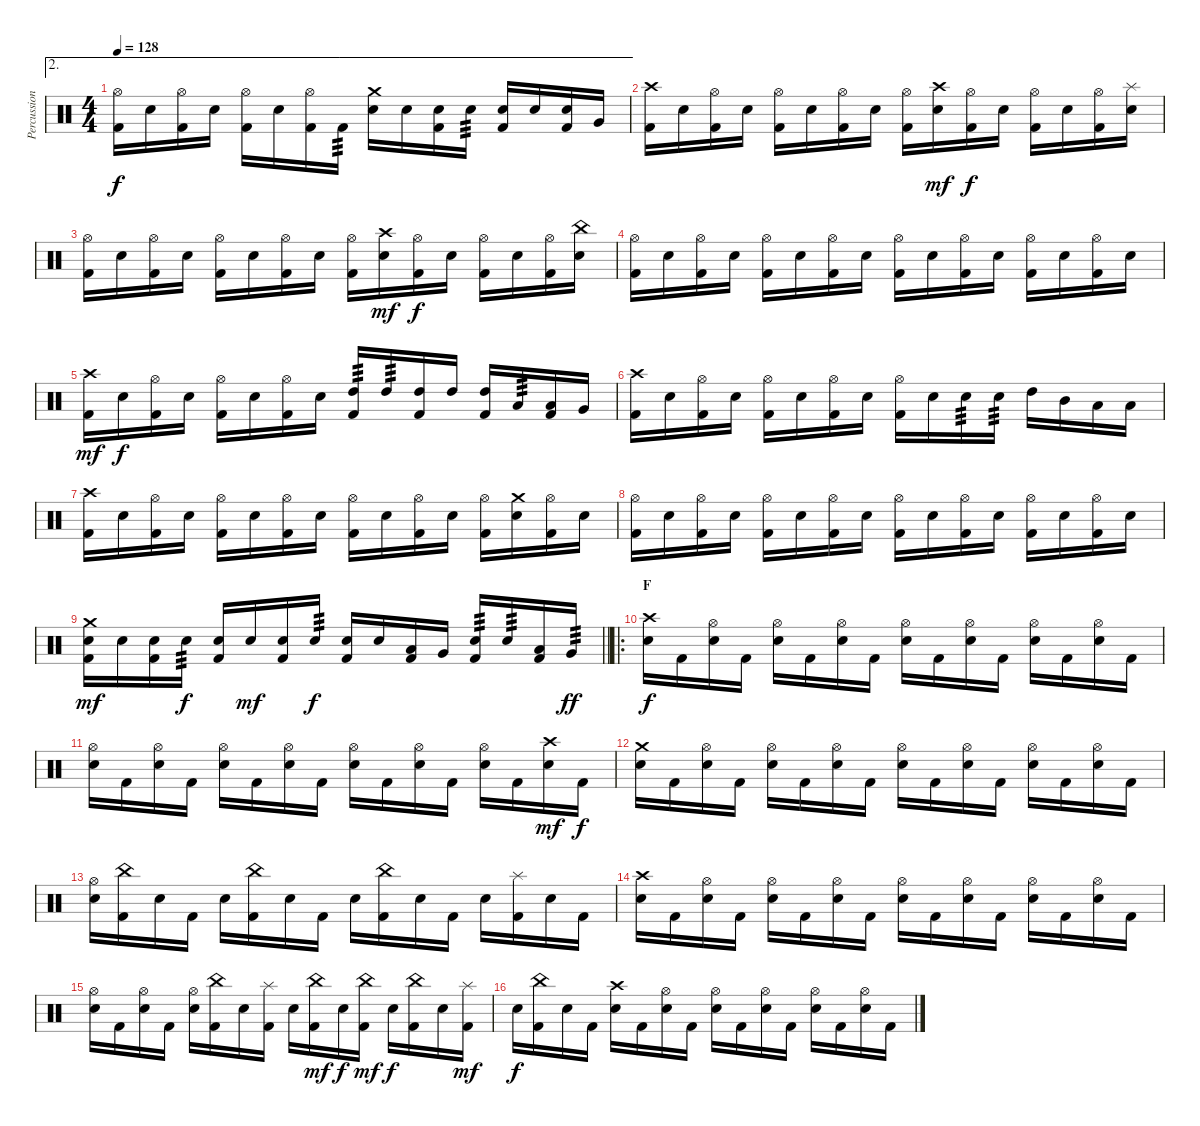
\track ("Percussion" "Percussion") {instrument percussion}
\staff {score}
\articulation defaults
\ae 2
\ts (4 4)
\tempo 128
\clef neutral
\ks c
("Hi-Hat (open)" "Kick (hit) 2").16{dy f} "Snare (hit) 2".16 ("Hi-Hat (open)" "Kick (hit) 2").16 "Snare (hit) 2".16 ("Hi-Hat (open)" "Kick (hit) 2").16 "Snare (hit) 2".16 ("Hi-Hat (open)" "Kick (hit) 2").16 "Kick (hit) 2".16{tp 3} ("Crash medium (hit)" "Snare (hit) 2").16 "Snare (hit) 2".16 ("Snare (hit) 2" "Kick (hit) 2").16 "Snare (hit) 2".16{tp 3} ("Snare (hit) 2" "Kick (hit) 2").16 "Snare (hit) 2".16 ("Snare (hit) 2" "Kick (hit) 2").16 "Very Low Tom (hit)".16 |
("Crash high (hit)" "Kick (hit) 2").16 "Snare (hit) 2".16 ("Hi-Hat (open)" "Kick (hit) 2").16 "Snare (hit) 2".16 ("Hi-Hat (open)" "Kick (hit) 2").16 "Snare (hit) 2".16 ("Hi-Hat (open)" "Kick (hit) 2").16 "Snare (hit) 2".16 ("Hi-Hat (open)" "Kick (hit) 2").16 ("Crash high (hit)" "Snare (hit) 2").16{dy mf} ("Hi-Hat (open)" "Kick (hit) 2").16{dy f} "Snare (hit) 2".16 ("Hi-Hat (open)" "Kick (hit) 2").16 "Snare (hit) 2".16 ("Hi-Hat (open)" "Kick (hit) 2").16 ("Splash (hit)" "Snare (hit) 2").16 |
("Hi-Hat (open)" "Kick (hit) 2").16 "Snare (hit) 2".16 ("Hi-Hat (open)" "Kick (hit) 2").16 "Snare (hit) 2".16 ("Hi-Hat (open)" "Kick (hit) 2").16 "Snare (hit) 2".16 ("Hi-Hat (open)" "Kick (hit) 2").16 "Snare (hit) 2".16 ("Hi-Hat (open)" "Kick (hit) 2").16 ("Crash high (hit)" "Snare (hit) 2").16{dy mf} ("Hi-Hat (open)" "Kick (hit) 2").16{dy f} "Snare (hit) 2".16 ("Hi-Hat (open)" "Kick (hit) 2").16 "Snare (hit) 2".16 ("Hi-Hat (open)" "Kick (hit) 2").16 ("China (hit)" "Snare (hit) 2").16 |
("Hi-Hat (open)" "Kick (hit) 2").16 "Snare (hit) 2".16 ("Hi-Hat (open)" "Kick (hit) 2").16 "Snare (hit) 2".16 ("Hi-Hat (open)" "Kick (hit) 2").16 "Snare (hit) 2".16 ("Hi-Hat (open)" "Kick (hit) 2").16 "Snare (hit) 2".16 ("Hi-Hat (open)" "Kick (hit) 2").16 "Snare (hit) 2".16 ("Hi-Hat (open)" "Kick (hit) 2").16 "Snare (hit) 2".16 ("Hi-Hat (open)" "Kick (hit) 2").16 "Snare (hit) 2".16 ("Hi-Hat (open)" "Kick (hit) 2").16 "Snare (hit) 2".16 |
("Crash high (hit)" "Kick (hit) 2").16{dy mf} "Snare (hit) 2".16{dy f} ("Hi-Hat (open)" "Kick (hit) 2").16 "Snare (hit) 2".16 ("Hi-Hat (open)" "Kick (hit) 2").16 "Snare (hit) 2".16 ("Hi-Hat (open)" "Kick (hit) 2").16 "Snare (hit) 2".16 ("High Tom (hit)" "Kick (hit) 2").16{tp 3} "High Tom (hit)".16{tp 3} ("High Tom (hit)" "Kick (hit) 2").16 "High Tom (hit)".16 ("High Tom (hit)" "Kick (hit) 2").16 "Low Tom (hit)".16{tp 3} ("Low Tom (hit)" "Kick (hit) 2").16 "Very Low Tom (hit)".16 |
("Crash high (hit)" "Kick (hit) 2").16 "Snare (hit) 2".16 ("Hi-Hat (open)" "Kick (hit) 2").16 "Snare (hit) 2".16 ("Hi-Hat (open)" "Kick (hit) 2").16 "Snare (hit) 2".16 ("Hi-Hat (open)" "Kick (hit) 2").16 "Snare (hit) 2".16 ("Hi-Hat (open)" "Kick (hit) 2").16 "Snare (hit) 2".16 "Snare (hit) 2".16{tp 3} "Snare (hit) 2".16{tp 3} "High Tom (hit)".16 "Mid Tom (hit)".16 "Low Tom (hit)".16 "Low Tom (hit)".16 |
("Crash high (hit)" "Kick (hit) 2").16 "Snare (hit) 2".16 ("Hi-Hat (open)" "Kick (hit) 2").16 "Snare (hit) 2".16 ("Hi-Hat (open)" "Kick (hit) 2").16 "Snare (hit) 2".16 ("Hi-Hat (open)" "Kick (hit) 2").16 "Snare (hit) 2".16 ("Hi-Hat (open)" "Kick (hit) 2").16 "Snare (hit) 2".16 ("Hi-Hat (open)" "Kick (hit) 2").16 "Snare (hit) 2".16 ("Hi-Hat (open)" "Kick (hit) 2").16 ("Crash medium (hit)" "Snare (hit) 2").16 ("Hi-Hat (open)" "Kick (hit) 2").16 "Snare (hit) 2".16 |
("Hi-Hat (open)" "Kick (hit) 2").16 "Snare (hit) 2".16 ("Hi-Hat (open)" "Kick (hit) 2").16 "Snare (hit) 2".16 ("Hi-Hat (open)" "Kick (hit) 2").16 "Snare (hit) 2".16 ("Hi-Hat (open)" "Kick (hit) 2").16 "Snare (hit) 2".16 ("Hi-Hat (open)" "Kick (hit) 2").16 "Snare (hit) 2".16 ("Hi-Hat (open)" "Kick (hit) 2").16 "Snare (hit) 2".16 ("Hi-Hat (open)" "Kick (hit) 2").16 "Snare (hit) 2".16 ("Hi-Hat (open)" "Kick (hit) 2").16 "Snare (hit) 2".16 |
\barLineRight lightlight
("Crash medium (hit)" "Snare (hit) 2" "Kick (hit) 2").16{dy mf} "Snare (hit) 2".16 ("Snare (hit) 2" "Kick (hit) 2").16 "Snare (hit) 2".16{tp 3 dy f} ("Snare (hit) 2" "Kick (hit) 2").16 "Snare (hit) 2".16{dy mf} ("Snare (hit) 2" "Kick (hit) 2").16 "Snare (hit) 2".16{tp 3 dy f} ("Snare (hit) 2" "Kick (hit) 2").16 "Snare (hit) 2".16 ("Low Tom (hit)" "Kick (hit) 2").16 "Very Low Tom (hit)".16 ("Snare (hit) 2" "Kick (hit) 2").16{tp 3} "Snare (hit) 2".16{tp 3} ("Low Tom (hit)" "Kick (hit) 2").16 "Very Low Tom (hit)".16{tp 3 dy ff} |
\ro
\section ("" "F")
("Crash high (hit)" "Snare (hit) 2").16{dy f} "Kick (hit) 2".16 ("Hi-Hat (open)" "Snare (hit) 2").16 "Kick (hit) 2".16 ("Hi-Hat (open)" "Snare (hit) 2").16 "Kick (hit) 2".16 ("Hi-Hat (open)" "Snare (hit) 2").16 "Kick (hit) 2".16 ("Hi-Hat (open)" "Snare (hit) 2").16 "Kick (hit) 2".16 ("Hi-Hat (open)" "Snare (hit) 2").16 "Kick (hit) 2".16 ("Hi-Hat (open)" "Snare (hit) 2").16 "Kick (hit) 2".16 ("Hi-Hat (open)" "Snare (hit) 2").16 "Kick (hit) 2".16 |
("Hi-Hat (open)" "Snare (hit) 2").16 "Kick (hit) 2".16 ("Hi-Hat (open)" "Snare (hit) 2").16 "Kick (hit) 2".16 ("Hi-Hat (open)" "Snare (hit) 2").16 "Kick (hit) 2".16 ("Hi-Hat (open)" "Snare (hit) 2").16 "Kick (hit) 2".16 ("Hi-Hat (open)" "Snare (hit) 2").16 "Kick (hit) 2".16 ("Hi-Hat (open)" "Snare (hit) 2").16 "Kick (hit) 2".16 ("Hi-Hat (open)" "Snare (hit) 2").16 "Kick (hit) 2".16 ("Crash high (hit)" "Snare (hit) 2").16{dy mf} "Kick (hit) 2".16{dy f} |
("Crash medium (hit)" "Snare (hit) 2").16 "Kick (hit) 2".16 ("Hi-Hat (open)" "Snare (hit) 2").16 "Kick (hit) 2".16 ("Hi-Hat (open)" "Snare (hit) 2").16 "Kick (hit) 2".16 ("Hi-Hat (open)" "Snare (hit) 2").16 "Kick (hit) 2".16 ("Hi-Hat (open)" "Snare (hit) 2").16 "Kick (hit) 2".16 ("Hi-Hat (open)" "Snare (hit) 2").16 "Kick (hit) 2".16 ("Hi-Hat (open)" "Snare (hit) 2").16 "Kick (hit) 2".16 ("Hi-Hat (open)" "Snare (hit) 2").16 "Kick (hit) 2".16 |
("Hi-Hat (open)" "Snare (hit) 2").16 ("China (hit)" "Kick (hit) 2").16 "Snare (hit) 2".16 "Kick (hit) 2".16 "Snare (hit) 2".16 ("China (hit)" "Kick (hit) 2").16 "Snare (hit) 2".16 "Kick (hit) 2".16 "Snare (hit) 2".16 ("China (hit)" "Kick (hit) 2").16 "Snare (hit) 2".16 "Kick (hit) 2".16 "Snare (hit) 2".16 ("Splash (hit)" "Kick (hit) 2").16 "Snare (hit) 2".16 "Kick (hit) 2".16 |
("Crash high (hit)" "Snare (hit) 2").16 "Kick (hit) 2".16 ("Hi-Hat (open)" "Snare (hit) 2").16 "Kick (hit) 2".16 ("Hi-Hat (open)" "Snare (hit) 2").16 "Kick (hit) 2".16 ("Hi-Hat (open)" "Snare (hit) 2").16 "Kick (hit) 2".16 ("Hi-Hat (open)" "Snare (hit) 2").16 "Kick (hit) 2".16 ("Hi-Hat (open)" "Snare (hit) 2").16 "Kick (hit) 2".16 ("Hi-Hat (open)" "Snare (hit) 2").16 "Kick (hit) 2".16 ("Hi-Hat (open)" "Snare (hit) 2").16 "Kick (hit) 2".16 |
("Hi-Hat (open)" "Snare (hit) 2").16 "Kick (hit) 2".16 ("Hi-Hat (open)" "Snare (hit) 2").16 "Kick (hit) 2".16 ("Hi-Hat (open)" "Snare (hit) 2").16 ("China (hit)" "Kick (hit) 2").16 "Snare (hit) 2".16 ("Splash (hit)" "Kick (hit) 2").16 "Snare (hit) 2".16 ("China (hit)" "Kick (hit) 2").16{dy mf} "Snare (hit) 2".16{dy f} ("China (hit)" "Kick (hit) 2").16{dy mf} "Snare (hit) 2".16{dy f} ("China (hit)" "Kick (hit) 2").16 "Snare (hit) 2".16 ("Splash (hit)" "Kick (hit) 2").16{dy mf} |
"Snare (hit) 2".16{dy f} ("China (hit)" "Kick (hit) 2").16 "Snare (hit) 2".16 "Kick (hit) 2".16 ("Crash high (hit)" "Snare (hit) 2").16 "Kick (hit) 2".16 ("Hi-Hat (open)" "Snare (hit) 2").16 "Kick (hit) 2".16 ("Hi-Hat (open)" "Snare (hit) 2").16 "Kick (hit) 2".16 ("Hi-Hat (open)" "Snare (hit) 2").16 "Kick (hit) 2".16 ("Hi-Hat (open)" "Snare (hit) 2").16 "Kick (hit) 2".16 ("Hi-Hat (open)" "Snare (hit) 2").16 "Kick (hit) 2".16
